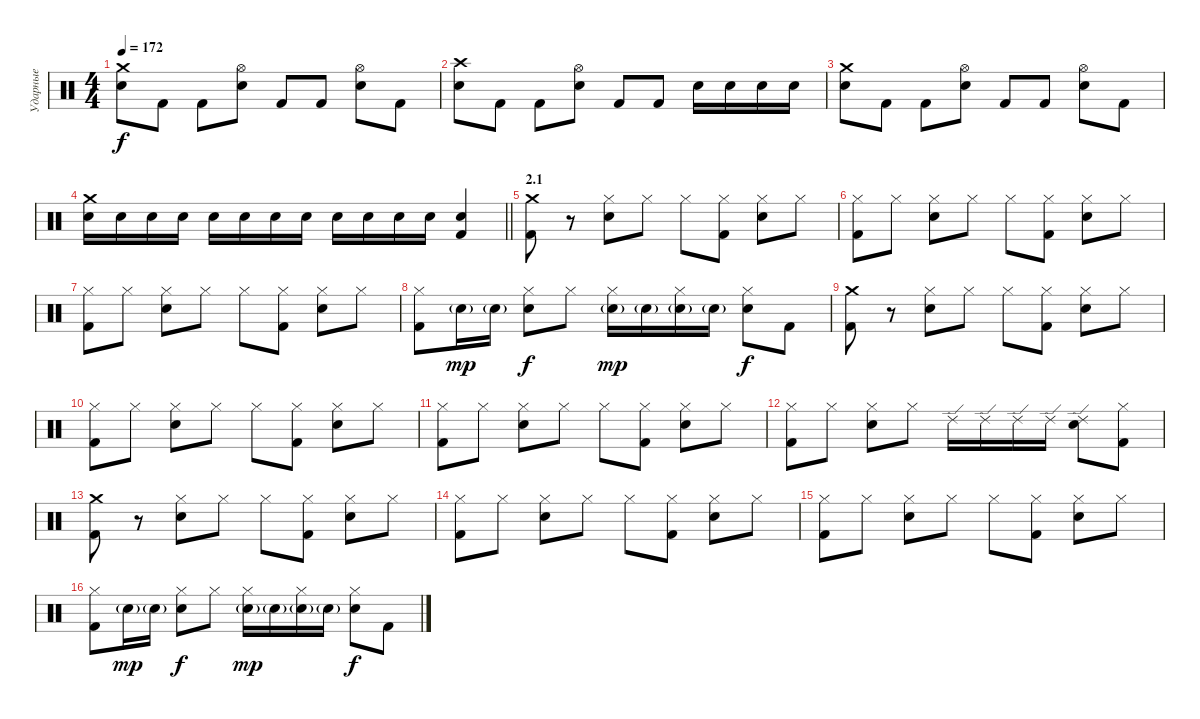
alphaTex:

\track ("Ударные" "Ударные") {instrument percussion}
\staff {score}
\articulation defaults
\ts (4 4)
\tempo 172
\clef neutral
\ks c
("Crash medium (hit)" "Electric Snare (hit)").8{dy f} "Kick (hit) 2".8 "Kick (hit) 2".8 ("Hi-Hat (open)" "Electric Snare (hit)").8 "Kick (hit) 2".8 "Kick (hit) 2".8 ("Hi-Hat (open)" "Electric Snare (hit)").8 "Kick (hit) 2".8 |
("Crash high (hit)" "Electric Snare (hit)").8 "Kick (hit) 2".8 "Kick (hit) 2".8 ("Hi-Hat (open)" "Electric Snare (hit)").8 "Kick (hit) 2".8 "Kick (hit) 2".8 "Electric Snare (hit)".16 "Electric Snare (hit)".16 "Electric Snare (hit)".16 "Electric Snare (hit)".16 |
("Crash medium (hit)" "Electric Snare (hit)").8 "Kick (hit) 2".8 "Kick (hit) 2".8 ("Hi-Hat (open)" "Electric Snare (hit)").8 "Kick (hit) 2".8 "Kick (hit) 2".8 ("Hi-Hat (open)" "Electric Snare (hit)").8 "Kick (hit) 2".8 |
\barLineRight lightlight
("Crash medium (hit)" "Electric Snare (hit)").16 "Electric Snare (hit)".16 "Electric Snare (hit)".16 "Electric Snare (hit)".16 "Electric Snare (hit)".16 "Electric Snare (hit)".16 "Electric Snare (hit)".16 "Electric Snare (hit)".16 "Electric Snare (hit)".16 "Electric Snare (hit)".16 "Electric Snare (hit)".16 "Electric Snare (hit)".16 ("Electric Snare (hit)" "Kick (hit) 2").4 |
\section ("" "2.1")
("Crash medium (hit)" "Kick (hit) 2").8 r.8 ("Hi-Hat (closed)" "Electric Snare (hit)").8 "Hi-Hat (closed)".8 "Hi-Hat (closed)".8 ("Hi-Hat (closed)" "Kick (hit) 2").8 ("Hi-Hat (closed)" "Electric Snare (hit)").8 "Hi-Hat (closed)".8 |
("Hi-Hat (closed)" "Kick (hit) 2").8 "Hi-Hat (closed)".8 ("Hi-Hat (closed)" "Electric Snare (hit)").8 "Hi-Hat (closed)".8 "Hi-Hat (closed)".8 ("Hi-Hat (closed)" "Kick (hit) 2").8 ("Hi-Hat (closed)" "Electric Snare (hit)").8 "Hi-Hat (closed)".8 |
("Hi-Hat (closed)" "Kick (hit) 2").8 "Hi-Hat (closed)".8 ("Hi-Hat (closed)" "Electric Snare (hit)").8 "Hi-Hat (closed)".8 "Hi-Hat (closed)".8 ("Hi-Hat (closed)" "Kick (hit) 2").8 ("Hi-Hat (closed)" "Electric Snare (hit)").8 "Hi-Hat (closed)".8 |
("Hi-Hat (closed)" "Kick (hit) 2").8 "Electric Snare (hit)"{g}.16{dy mp} "Electric Snare (hit)"{g}.16 ("Hi-Hat (closed)" "Electric Snare (hit)").8{dy f} "Hi-Hat (closed)".8 ("Hi-Hat (closed)" "Electric Snare (hit)"{g}).16{dy mp} "Electric Snare (hit)"{g}.16 ("Hi-Hat (closed)" "Electric Snare (hit)"{g}).16 "Electric Snare (hit)"{g}.16 ("Hi-Hat (closed)" "Electric Snare (hit)").8{dy f} "Kick (hit) 2".8 |
("Crash medium (hit)" "Kick (hit) 2").8 r.8 ("Hi-Hat (closed)" "Electric Snare (hit)").8 "Hi-Hat (closed)".8 "Hi-Hat (closed)".8 ("Hi-Hat (closed)" "Kick (hit) 2").8 ("Hi-Hat (closed)" "Electric Snare (hit)").8 "Hi-Hat (closed)".8 |
("Hi-Hat (closed)" "Kick (hit) 2").8 "Hi-Hat (closed)".8 ("Hi-Hat (closed)" "Electric Snare (hit)").8 "Hi-Hat (closed)".8 "Hi-Hat (closed)".8 ("Hi-Hat (closed)" "Kick (hit) 2").8 ("Hi-Hat (closed)" "Electric Snare (hit)").8 "Hi-Hat (closed)".8 |
("Hi-Hat (closed)" "Kick (hit) 2").8 "Hi-Hat (closed)".8 ("Hi-Hat (closed)" "Electric Snare (hit)").8 "Hi-Hat (closed)".8 "Hi-Hat (closed)".8 ("Hi-Hat (closed)" "Kick (hit) 2").8 ("Hi-Hat (closed)" "Electric Snare (hit)").8 "Hi-Hat (closed)".8 |
("Hi-Hat (closed)" "Kick (hit) 2").8 "Hi-Hat (closed)".8 ("Hi-Hat (closed)" "Electric Snare (hit)").8 "Hi-Hat (closed)".8 "Ride (edge) 2".16 "Ride (edge) 2".16 "Ride (edge) 2".16 "Ride (edge) 2".16 ("Ride (edge) 2" "Electric Snare (hit)").8 ("Hi-Hat (closed)" "Kick (hit) 2").8 |
("Crash medium (hit)" "Kick (hit) 2").8 r.8 ("Hi-Hat (closed)" "Electric Snare (hit)").8 "Hi-Hat (closed)".8 "Hi-Hat (closed)".8 ("Hi-Hat (closed)" "Kick (hit) 2").8 ("Hi-Hat (closed)" "Electric Snare (hit)").8 "Hi-Hat (closed)".8 |
("Hi-Hat (closed)" "Kick (hit) 2").8 "Hi-Hat (closed)".8 ("Hi-Hat (closed)" "Electric Snare (hit)").8 "Hi-Hat (closed)".8 "Hi-Hat (closed)".8 ("Hi-Hat (closed)" "Kick (hit) 2").8 ("Hi-Hat (closed)" "Electric Snare (hit)").8 "Hi-Hat (closed)".8 |
("Hi-Hat (closed)" "Kick (hit) 2").8 "Hi-Hat (closed)".8 ("Hi-Hat (closed)" "Electric Snare (hit)").8 "Hi-Hat (closed)".8 "Hi-Hat (closed)".8 ("Hi-Hat (closed)" "Kick (hit) 2").8 ("Hi-Hat (closed)" "Electric Snare (hit)").8 "Hi-Hat (closed)".8 |
("Hi-Hat (closed)" "Kick (hit) 2").8 "Electric Snare (hit)"{g}.16{dy mp} "Electric Snare (hit)"{g}.16 ("Hi-Hat (closed)" "Electric Snare (hit)").8{dy f} "Hi-Hat (closed)".8 ("Hi-Hat (closed)" "Electric Snare (hit)"{g}).16{dy mp} "Electric Snare (hit)"{g}.16 ("Hi-Hat (closed)" "Electric Snare (hit)"{g}).16 "Electric Snare (hit)"{g}.16 ("Hi-Hat (closed)" "Electric Snare (hit)").8{dy f} "Kick (hit) 2".8
